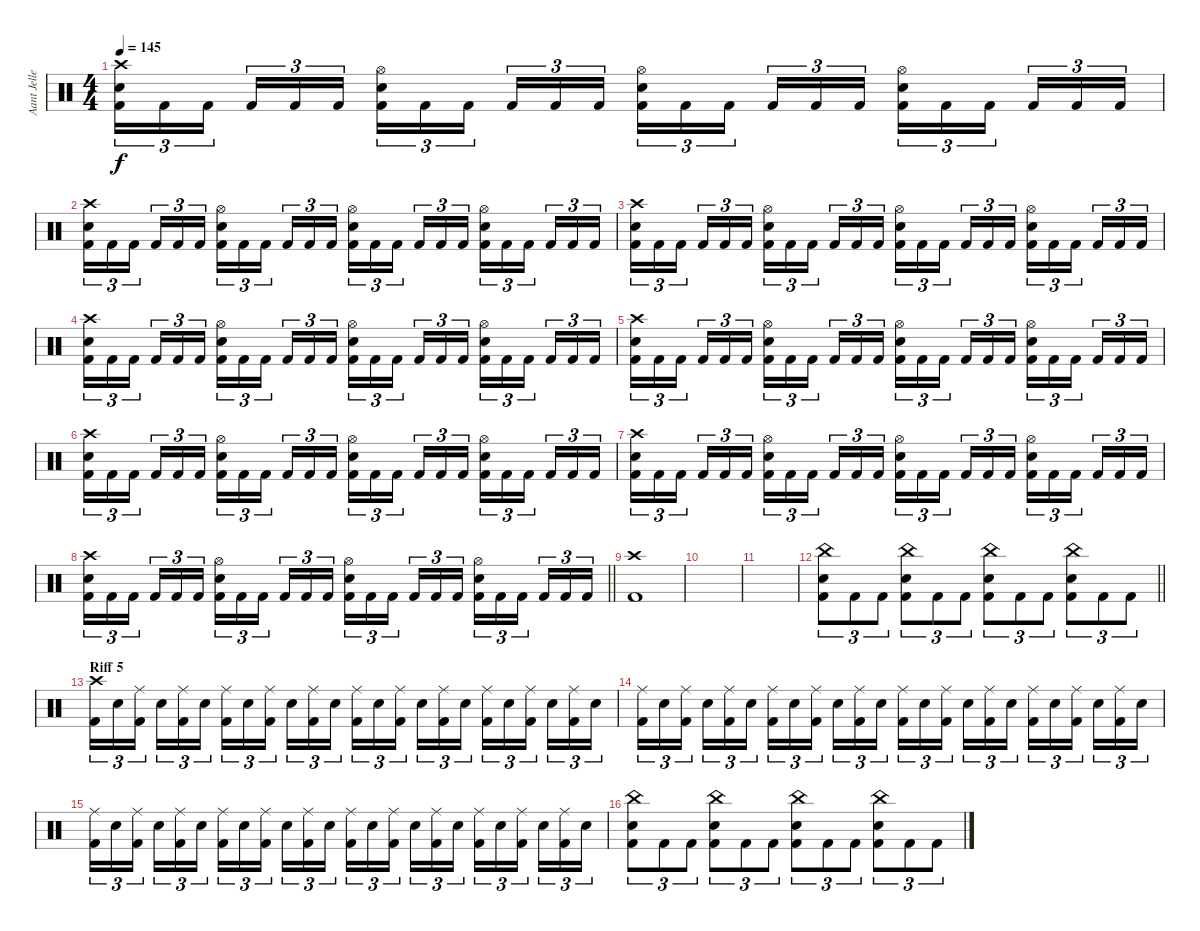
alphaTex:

\track ("Aant Jelle" "Aant Jelle") {instrument percussion}
\staff {score}
\articulation defaults
\ts (4 4)
\tempo 145
\clef neutral
\ks c
("Crash high (hit)" "Electric Snare (hit)" "Kick (hit) 2").16{tu (3 2) dy f} "Kick (hit) 2".16{tu (3 2)} "Kick (hit) 2".16{tu (3 2) beam splitsecondary} "Kick (hit) 2".16{tu (3 2)} "Kick (hit) 2".16{tu (3 2)} "Kick (hit) 2".16{tu (3 2)} ("Hi-Hat (open)" "Electric Snare (hit)" "Kick (hit) 2").16{tu (3 2)} "Kick (hit) 2".16{tu (3 2)} "Kick (hit) 2".16{tu (3 2) beam splitsecondary} "Kick (hit) 2".16{tu (3 2)} "Kick (hit) 2".16{tu (3 2)} "Kick (hit) 2".16{tu (3 2)} ("Hi-Hat (open)" "Electric Snare (hit)" "Kick (hit) 2").16{tu (3 2)} "Kick (hit) 2".16{tu (3 2)} "Kick (hit) 2".16{tu (3 2) beam splitsecondary} "Kick (hit) 2".16{tu (3 2)} "Kick (hit) 2".16{tu (3 2)} "Kick (hit) 2".16{tu (3 2)} ("Hi-Hat (open)" "Electric Snare (hit)" "Kick (hit) 2").16{tu (3 2)} "Kick (hit) 2".16{tu (3 2)} "Kick (hit) 2".16{tu (3 2) beam splitsecondary} "Kick (hit) 2".16{tu (3 2)} "Kick (hit) 2".16{tu (3 2)} "Kick (hit) 2".16{tu (3 2)} |
("Crash high (hit)" "Electric Snare (hit)" "Kick (hit) 2").16{tu (3 2)} "Kick (hit) 2".16{tu (3 2)} "Kick (hit) 2".16{tu (3 2) beam splitsecondary} "Kick (hit) 2".16{tu (3 2)} "Kick (hit) 2".16{tu (3 2)} "Kick (hit) 2".16{tu (3 2)} ("Hi-Hat (open)" "Electric Snare (hit)" "Kick (hit) 2").16{tu (3 2)} "Kick (hit) 2".16{tu (3 2)} "Kick (hit) 2".16{tu (3 2) beam splitsecondary} "Kick (hit) 2".16{tu (3 2)} "Kick (hit) 2".16{tu (3 2)} "Kick (hit) 2".16{tu (3 2)} ("Hi-Hat (open)" "Electric Snare (hit)" "Kick (hit) 2").16{tu (3 2)} "Kick (hit) 2".16{tu (3 2)} "Kick (hit) 2".16{tu (3 2) beam splitsecondary} "Kick (hit) 2".16{tu (3 2)} "Kick (hit) 2".16{tu (3 2)} "Kick (hit) 2".16{tu (3 2)} ("Hi-Hat (open)" "Electric Snare (hit)" "Kick (hit) 2").16{tu (3 2)} "Kick (hit) 2".16{tu (3 2)} "Kick (hit) 2".16{tu (3 2) beam splitsecondary} "Kick (hit) 2".16{tu (3 2)} "Kick (hit) 2".16{tu (3 2)} "Kick (hit) 2".16{tu (3 2)} |
("Crash high (hit)" "Electric Snare (hit)" "Kick (hit) 2").16{tu (3 2)} "Kick (hit) 2".16{tu (3 2)} "Kick (hit) 2".16{tu (3 2) beam splitsecondary} "Kick (hit) 2".16{tu (3 2)} "Kick (hit) 2".16{tu (3 2)} "Kick (hit) 2".16{tu (3 2)} ("Hi-Hat (open)" "Electric Snare (hit)" "Kick (hit) 2").16{tu (3 2)} "Kick (hit) 2".16{tu (3 2)} "Kick (hit) 2".16{tu (3 2) beam splitsecondary} "Kick (hit) 2".16{tu (3 2)} "Kick (hit) 2".16{tu (3 2)} "Kick (hit) 2".16{tu (3 2)} ("Hi-Hat (open)" "Electric Snare (hit)" "Kick (hit) 2").16{tu (3 2)} "Kick (hit) 2".16{tu (3 2)} "Kick (hit) 2".16{tu (3 2) beam splitsecondary} "Kick (hit) 2".16{tu (3 2)} "Kick (hit) 2".16{tu (3 2)} "Kick (hit) 2".16{tu (3 2)} ("Hi-Hat (open)" "Electric Snare (hit)" "Kick (hit) 2").16{tu (3 2)} "Kick (hit) 2".16{tu (3 2)} "Kick (hit) 2".16{tu (3 2) beam splitsecondary} "Kick (hit) 2".16{tu (3 2)} "Kick (hit) 2".16{tu (3 2)} "Kick (hit) 2".16{tu (3 2)} |
("Crash high (hit)" "Electric Snare (hit)" "Kick (hit) 2").16{tu (3 2)} "Kick (hit) 2".16{tu (3 2)} "Kick (hit) 2".16{tu (3 2) beam splitsecondary} "Kick (hit) 2".16{tu (3 2)} "Kick (hit) 2".16{tu (3 2)} "Kick (hit) 2".16{tu (3 2)} ("Hi-Hat (open)" "Electric Snare (hit)" "Kick (hit) 2").16{tu (3 2)} "Kick (hit) 2".16{tu (3 2)} "Kick (hit) 2".16{tu (3 2) beam splitsecondary} "Kick (hit) 2".16{tu (3 2)} "Kick (hit) 2".16{tu (3 2)} "Kick (hit) 2".16{tu (3 2)} ("Hi-Hat (open)" "Electric Snare (hit)" "Kick (hit) 2").16{tu (3 2)} "Kick (hit) 2".16{tu (3 2)} "Kick (hit) 2".16{tu (3 2) beam splitsecondary} "Kick (hit) 2".16{tu (3 2)} "Kick (hit) 2".16{tu (3 2)} "Kick (hit) 2".16{tu (3 2)} ("Hi-Hat (open)" "Electric Snare (hit)" "Kick (hit) 2").16{tu (3 2)} "Kick (hit) 2".16{tu (3 2)} "Kick (hit) 2".16{tu (3 2) beam splitsecondary} "Kick (hit) 2".16{tu (3 2)} "Kick (hit) 2".16{tu (3 2)} "Kick (hit) 2".16{tu (3 2)} |
("Crash high (hit)" "Electric Snare (hit)" "Kick (hit) 2").16{tu (3 2)} "Kick (hit) 2".16{tu (3 2)} "Kick (hit) 2".16{tu (3 2) beam splitsecondary} "Kick (hit) 2".16{tu (3 2)} "Kick (hit) 2".16{tu (3 2)} "Kick (hit) 2".16{tu (3 2)} ("Hi-Hat (open)" "Electric Snare (hit)" "Kick (hit) 2").16{tu (3 2)} "Kick (hit) 2".16{tu (3 2)} "Kick (hit) 2".16{tu (3 2) beam splitsecondary} "Kick (hit) 2".16{tu (3 2)} "Kick (hit) 2".16{tu (3 2)} "Kick (hit) 2".16{tu (3 2)} ("Hi-Hat (open)" "Electric Snare (hit)" "Kick (hit) 2").16{tu (3 2)} "Kick (hit) 2".16{tu (3 2)} "Kick (hit) 2".16{tu (3 2) beam splitsecondary} "Kick (hit) 2".16{tu (3 2)} "Kick (hit) 2".16{tu (3 2)} "Kick (hit) 2".16{tu (3 2)} ("Hi-Hat (open)" "Electric Snare (hit)" "Kick (hit) 2").16{tu (3 2)} "Kick (hit) 2".16{tu (3 2)} "Kick (hit) 2".16{tu (3 2) beam splitsecondary} "Kick (hit) 2".16{tu (3 2)} "Kick (hit) 2".16{tu (3 2)} "Kick (hit) 2".16{tu (3 2)} |
("Crash high (hit)" "Electric Snare (hit)" "Kick (hit) 2").16{tu (3 2)} "Kick (hit) 2".16{tu (3 2)} "Kick (hit) 2".16{tu (3 2) beam splitsecondary} "Kick (hit) 2".16{tu (3 2)} "Kick (hit) 2".16{tu (3 2)} "Kick (hit) 2".16{tu (3 2)} ("Hi-Hat (open)" "Electric Snare (hit)" "Kick (hit) 2").16{tu (3 2)} "Kick (hit) 2".16{tu (3 2)} "Kick (hit) 2".16{tu (3 2) beam splitsecondary} "Kick (hit) 2".16{tu (3 2)} "Kick (hit) 2".16{tu (3 2)} "Kick (hit) 2".16{tu (3 2)} ("Hi-Hat (open)" "Electric Snare (hit)" "Kick (hit) 2").16{tu (3 2)} "Kick (hit) 2".16{tu (3 2)} "Kick (hit) 2".16{tu (3 2) beam splitsecondary} "Kick (hit) 2".16{tu (3 2)} "Kick (hit) 2".16{tu (3 2)} "Kick (hit) 2".16{tu (3 2)} ("Hi-Hat (open)" "Electric Snare (hit)" "Kick (hit) 2").16{tu (3 2)} "Kick (hit) 2".16{tu (3 2)} "Kick (hit) 2".16{tu (3 2) beam splitsecondary} "Kick (hit) 2".16{tu (3 2)} "Kick (hit) 2".16{tu (3 2)} "Kick (hit) 2".16{tu (3 2)} |
("Crash high (hit)" "Electric Snare (hit)" "Kick (hit) 2").16{tu (3 2)} "Kick (hit) 2".16{tu (3 2)} "Kick (hit) 2".16{tu (3 2) beam splitsecondary} "Kick (hit) 2".16{tu (3 2)} "Kick (hit) 2".16{tu (3 2)} "Kick (hit) 2".16{tu (3 2)} ("Hi-Hat (open)" "Electric Snare (hit)" "Kick (hit) 2").16{tu (3 2)} "Kick (hit) 2".16{tu (3 2)} "Kick (hit) 2".16{tu (3 2) beam splitsecondary} "Kick (hit) 2".16{tu (3 2)} "Kick (hit) 2".16{tu (3 2)} "Kick (hit) 2".16{tu (3 2)} ("Hi-Hat (open)" "Electric Snare (hit)" "Kick (hit) 2").16{tu (3 2)} "Kick (hit) 2".16{tu (3 2)} "Kick (hit) 2".16{tu (3 2) beam splitsecondary} "Kick (hit) 2".16{tu (3 2)} "Kick (hit) 2".16{tu (3 2)} "Kick (hit) 2".16{tu (3 2)} ("Hi-Hat (open)" "Electric Snare (hit)" "Kick (hit) 2").16{tu (3 2)} "Kick (hit) 2".16{tu (3 2)} "Kick (hit) 2".16{tu (3 2) beam splitsecondary} "Kick (hit) 2".16{tu (3 2)} "Kick (hit) 2".16{tu (3 2)} "Kick (hit) 2".16{tu (3 2)} |
\barLineRight lightlight
("Crash high (hit)" "Electric Snare (hit)" "Kick (hit) 2").16{tu (3 2)} "Kick (hit) 2".16{tu (3 2)} "Kick (hit) 2".16{tu (3 2) beam splitsecondary} "Kick (hit) 2".16{tu (3 2)} "Kick (hit) 2".16{tu (3 2)} "Kick (hit) 2".16{tu (3 2)} ("Hi-Hat (open)" "Electric Snare (hit)" "Kick (hit) 2").16{tu (3 2)} "Kick (hit) 2".16{tu (3 2)} "Kick (hit) 2".16{tu (3 2) beam splitsecondary} "Kick (hit) 2".16{tu (3 2)} "Kick (hit) 2".16{tu (3 2)} "Kick (hit) 2".16{tu (3 2)} ("Hi-Hat (open)" "Electric Snare (hit)" "Kick (hit) 2").16{tu (3 2)} "Kick (hit) 2".16{tu (3 2)} "Kick (hit) 2".16{tu (3 2) beam splitsecondary} "Kick (hit) 2".16{tu (3 2)} "Kick (hit) 2".16{tu (3 2)} "Kick (hit) 2".16{tu (3 2)} ("Hi-Hat (open)" "Electric Snare (hit)" "Kick (hit) 2").16{tu (3 2)} "Kick (hit) 2".16{tu (3 2)} "Kick (hit) 2".16{tu (3 2) beam splitsecondary} "Kick (hit) 2".16{tu (3 2)} "Kick (hit) 2".16{tu (3 2)} "Kick (hit) 2".16{tu (3 2)} |
("Crash high (hit)" "Kick (hit) 2").1 |
|
|
\barLineRight lightlight
("China (hit)" "Electric Snare (hit)" "Kick (hit) 2").8{tu (3 2)} "Kick (hit) 2".8{tu (3 2)} "Kick (hit) 2".8{tu (3 2)} ("China (hit)" "Electric Snare (hit)" "Kick (hit) 2").8{tu (3 2)} "Kick (hit) 2".8{tu (3 2)} "Kick (hit) 2".8{tu (3 2)} ("China (hit)" "Electric Snare (hit)" "Kick (hit) 2").8{tu (3 2)} "Kick (hit) 2".8{tu (3 2)} "Kick (hit) 2".8{tu (3 2)} ("China (hit)" "Electric Snare (hit)" "Kick (hit) 2").8{tu (3 2)} "Kick (hit) 2".8{tu (3 2)} "Kick (hit) 2".8{tu (3 2)} |
\section ("" "Riff 5")
("Crash high (hit)" "Kick (hit) 2").16{tu (3 2)} "Electric Snare (hit)".16{tu (3 2)} ("Ride (middle)" "Kick (hit) 2").16{tu (3 2) beam splitsecondary} "Electric Snare (hit)".16{tu (3 2)} ("Ride (middle)" "Kick (hit) 2").16{tu (3 2)} "Electric Snare (hit)".16{tu (3 2)} ("Ride (middle)" "Kick (hit) 2").16{tu (3 2)} "Electric Snare (hit)".16{tu (3 2)} ("Ride (middle)" "Kick (hit) 2").16{tu (3 2) beam splitsecondary} "Electric Snare (hit)".16{tu (3 2)} ("Ride (middle)" "Kick (hit) 2").16{tu (3 2)} "Electric Snare (hit)".16{tu (3 2)} ("Ride (middle)" "Kick (hit) 2").16{tu (3 2)} "Electric Snare (hit)".16{tu (3 2)} ("Ride (middle)" "Kick (hit) 2").16{tu (3 2) beam splitsecondary} "Electric Snare (hit)".16{tu (3 2)} ("Ride (middle)" "Kick (hit) 2").16{tu (3 2)} "Electric Snare (hit)".16{tu (3 2)} ("Ride (middle)" "Kick (hit) 2").16{tu (3 2)} "Electric Snare (hit)".16{tu (3 2)} ("Ride (middle)" "Kick (hit) 2").16{tu (3 2) beam splitsecondary} "Electric Snare (hit)".16{tu (3 2)} ("Ride (middle)" "Kick (hit) 2").16{tu (3 2)} "Electric Snare (hit)".16{tu (3 2)} |
("Ride (middle)" "Kick (hit) 2").16{tu (3 2)} "Electric Snare (hit)".16{tu (3 2)} ("Ride (middle)" "Kick (hit) 2").16{tu (3 2) beam splitsecondary} "Electric Snare (hit)".16{tu (3 2)} ("Ride (middle)" "Kick (hit) 2").16{tu (3 2)} "Electric Snare (hit)".16{tu (3 2)} ("Ride (middle)" "Kick (hit) 2").16{tu (3 2)} "Electric Snare (hit)".16{tu (3 2)} ("Ride (middle)" "Kick (hit) 2").16{tu (3 2) beam splitsecondary} "Electric Snare (hit)".16{tu (3 2)} ("Ride (middle)" "Kick (hit) 2").16{tu (3 2)} "Electric Snare (hit)".16{tu (3 2)} ("Ride (middle)" "Kick (hit) 2").16{tu (3 2)} "Electric Snare (hit)".16{tu (3 2)} ("Ride (middle)" "Kick (hit) 2").16{tu (3 2) beam splitsecondary} "Electric Snare (hit)".16{tu (3 2)} ("Ride (middle)" "Kick (hit) 2").16{tu (3 2)} "Electric Snare (hit)".16{tu (3 2)} ("Ride (middle)" "Kick (hit) 2").16{tu (3 2)} "Electric Snare (hit)".16{tu (3 2)} ("Ride (middle)" "Kick (hit) 2").16{tu (3 2) beam splitsecondary} "Electric Snare (hit)".16{tu (3 2)} ("Ride (middle)" "Kick (hit) 2").16{tu (3 2)} "Electric Snare (hit)".16{tu (3 2)} |
("Ride (middle)" "Kick (hit) 2").16{tu (3 2)} "Electric Snare (hit)".16{tu (3 2)} ("Ride (middle)" "Kick (hit) 2").16{tu (3 2) beam splitsecondary} "Electric Snare (hit)".16{tu (3 2)} ("Ride (middle)" "Kick (hit) 2").16{tu (3 2)} "Electric Snare (hit)".16{tu (3 2)} ("Ride (middle)" "Kick (hit) 2").16{tu (3 2)} "Electric Snare (hit)".16{tu (3 2)} ("Ride (middle)" "Kick (hit) 2").16{tu (3 2) beam splitsecondary} "Electric Snare (hit)".16{tu (3 2)} ("Ride (middle)" "Kick (hit) 2").16{tu (3 2)} "Electric Snare (hit)".16{tu (3 2)} ("Ride (middle)" "Kick (hit) 2").16{tu (3 2)} "Electric Snare (hit)".16{tu (3 2)} ("Ride (middle)" "Kick (hit) 2").16{tu (3 2) beam splitsecondary} "Electric Snare (hit)".16{tu (3 2)} ("Ride (middle)" "Kick (hit) 2").16{tu (3 2)} "Electric Snare (hit)".16{tu (3 2)} ("Ride (middle)" "Kick (hit) 2").16{tu (3 2)} "Electric Snare (hit)".16{tu (3 2)} ("Ride (middle)" "Kick (hit) 2").16{tu (3 2) beam splitsecondary} "Electric Snare (hit)".16{tu (3 2)} ("Ride (middle)" "Kick (hit) 2").16{tu (3 2)} "Electric Snare (hit)".16{tu (3 2)} |
("China (hit)" "Electric Snare (hit)" "Kick (hit) 2").8{tu (3 2)} "Kick (hit) 2".8{tu (3 2)} "Kick (hit) 2".8{tu (3 2)} ("China (hit)" "Electric Snare (hit)" "Kick (hit) 2").8{tu (3 2)} "Kick (hit) 2".8{tu (3 2)} "Kick (hit) 2".8{tu (3 2)} ("China (hit)" "Electric Snare (hit)" "Kick (hit) 2").8{tu (3 2)} "Kick (hit) 2".8{tu (3 2)} "Kick (hit) 2".8{tu (3 2)} ("China (hit)" "Electric Snare (hit)" "Kick (hit) 2").8{tu (3 2)} "Kick (hit) 2".8{tu (3 2)} "Kick (hit) 2".8{tu (3 2)}
